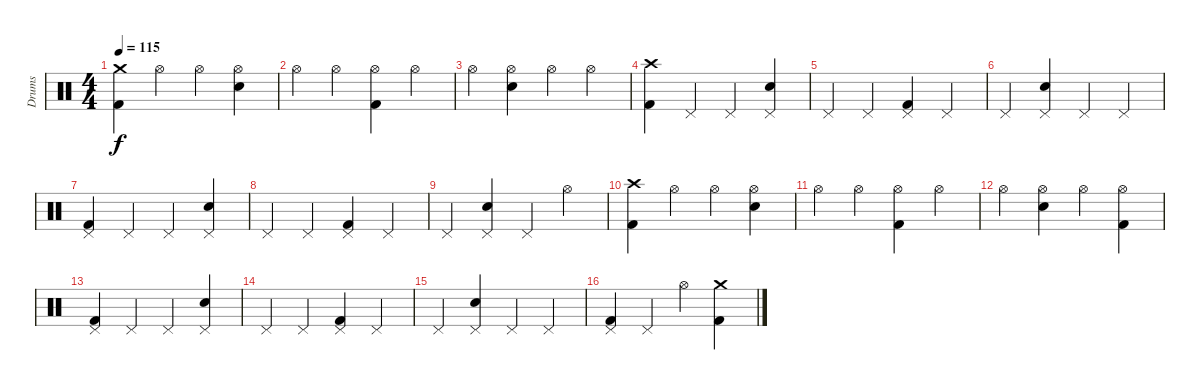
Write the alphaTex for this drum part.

\track ("Drums" "Drums") {instrument percussion}
\staff {score}
\articulation defaults
\ts (4 4)
\tempo 115
\clef neutral
\ks c
("Crash medium (hit)" "Kick (hit) 2").4{dy f} "Hi-Hat (open)".4 "Hi-Hat (open)".4 ("Hi-Hat (open)" "Electric Snare (hit)").4 |
"Hi-Hat (open)".4 "Hi-Hat (open)".4 ("Hi-Hat (open)" "Kick (hit) 2").4 "Hi-Hat (open)".4 |
"Hi-Hat (open)".4 ("Hi-Hat (open)" "Electric Snare (hit)").4 "Hi-Hat (open)".4 "Hi-Hat (open)".4 |
("Crash high (hit)" "Kick (hit) 2").4 "Pedal Hi-Hat (hit)".4 "Pedal Hi-Hat (hit)".4 ("Pedal Hi-Hat (hit)" "Electric Snare (hit)").4 |
"Pedal Hi-Hat (hit)".4 "Pedal Hi-Hat (hit)".4 ("Pedal Hi-Hat (hit)" "Kick (hit) 2").4 "Pedal Hi-Hat (hit)".4 |
"Pedal Hi-Hat (hit)".4 ("Pedal Hi-Hat (hit)" "Electric Snare (hit)").4 "Pedal Hi-Hat (hit)".4 "Pedal Hi-Hat (hit)".4 |
("Pedal Hi-Hat (hit)" "Kick (hit) 2").4 "Pedal Hi-Hat (hit)".4 "Pedal Hi-Hat (hit)".4 ("Pedal Hi-Hat (hit)" "Electric Snare (hit)").4 |
"Pedal Hi-Hat (hit)".4 "Pedal Hi-Hat (hit)".4 ("Pedal Hi-Hat (hit)" "Kick (hit) 2").4 "Pedal Hi-Hat (hit)".4 |
"Pedal Hi-Hat (hit)".4 ("Pedal Hi-Hat (hit)" "Electric Snare (hit)").4 "Pedal Hi-Hat (hit)".4 "Hi-Hat (open)".4 |
("Crash high (hit)" "Kick (hit) 2").4 "Hi-Hat (open)".4 "Hi-Hat (open)".4 ("Hi-Hat (open)" "Electric Snare (hit)").4 |
"Hi-Hat (open)".4 "Hi-Hat (open)".4 ("Hi-Hat (open)" "Kick (hit) 2").4 "Hi-Hat (open)".4 |
"Hi-Hat (open)".4 ("Hi-Hat (open)" "Electric Snare (hit)").4 "Hi-Hat (open)".4 ("Hi-Hat (open)" "Kick (hit) 2").4 |
("Pedal Hi-Hat (hit)" "Kick (hit) 2").4 "Pedal Hi-Hat (hit)".4 "Pedal Hi-Hat (hit)".4 ("Pedal Hi-Hat (hit)" "Electric Snare (hit)").4 |
"Pedal Hi-Hat (hit)".4 "Pedal Hi-Hat (hit)".4 ("Pedal Hi-Hat (hit)" "Kick (hit) 2").4 "Pedal Hi-Hat (hit)".4 |
"Pedal Hi-Hat (hit)".4 ("Pedal Hi-Hat (hit)" "Electric Snare (hit)").4 "Pedal Hi-Hat (hit)".4 "Pedal Hi-Hat (hit)".4 |
("Pedal Hi-Hat (hit)" "Kick (hit) 2").4 "Pedal Hi-Hat (hit)".4 "Hi-Hat (open)".4 ("Crash medium (hit)" "Kick (hit) 2").4
